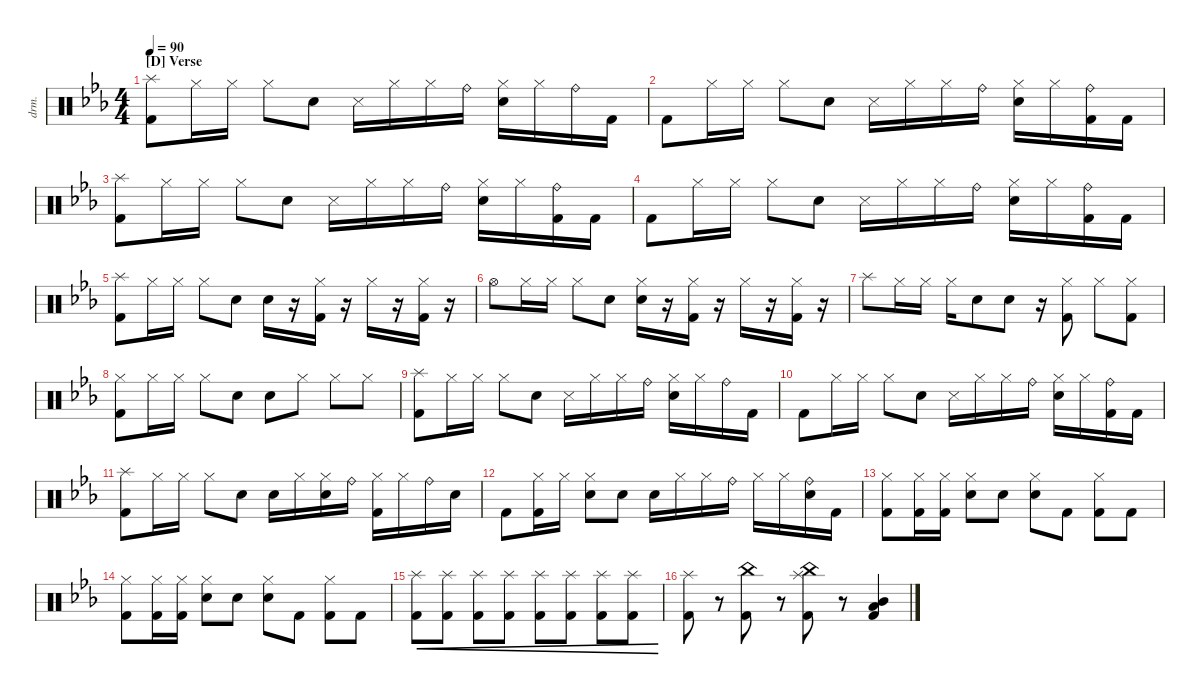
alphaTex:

\defaultSystemsLayout 4
\hideDynamics
\bracketExtendMode nobrackets
\otherSystemsTrackNameOrientation horizontal
\track ("Drumkit" "drm.") {instrument percussion}
\staff {score}
\articulation defaults
\ts (4 4)
\section ("D" "Verse")
\tempo 90
\clef neutral
\ks cminor
("Kick (hit) 2"{acc forcenatural} "Splash (hit)"{acc forcenatural}).8{dy mf beam Down} "Hi-Hat (closed)"{acc forcenatural}.16{beam Down} "Hi-Hat (closed)"{acc forcenatural}.16{beam Down} "Hi-Hat (closed)"{acc forcenatural}.8{beam Down} "Snare (hit) 2"{acc forcenatural}.8{beam Down} "Snare (side stick) 3"{acc forcenatural}.16{beam Down} "Hi-Hat (closed)"{acc forcenatural}.16{beam Down} "Hi-Hat (closed)"{acc forcenatural}.16{beam Down} "Ride (bell)"{acc forcenatural}.16{beam Down} ("Hi-Hat (closed)"{acc forcenatural} "Snare (hit) 2"{acc forcenatural}).16{beam Down} "Hi-Hat (closed)"{acc forcenatural}.16{beam Down} "Ride (bell)"{acc forcenatural}.16{beam Down} "Kick (hit) 2"{acc forcenatural}.16{beam Down} |
"Kick (hit) 2"{acc forcenatural}.8{beam Down} "Hi-Hat (closed)"{acc forcenatural}.16{beam Down} "Hi-Hat (closed)"{acc forcenatural}.16{beam Down} "Hi-Hat (closed)"{acc forcenatural}.8{beam Down} "Snare (hit) 2"{acc forcenatural}.8{beam Down} "Snare (side stick) 3"{acc forcenatural}.16{beam Down} "Hi-Hat (closed)"{acc forcenatural}.16{beam Down} "Hi-Hat (closed)"{acc forcenatural}.16{beam Down} "Ride (bell)"{acc forcenatural}.16{beam Down} ("Hi-Hat (closed)"{acc forcenatural} "Snare (hit) 2"{acc forcenatural}).16{beam Down} "Hi-Hat (closed)"{acc forcenatural}.16{beam Down} ("Ride (bell)"{acc forcenatural} "Kick (hit) 2"{acc forcenatural}).16{beam Down} "Kick (hit) 2"{acc forcenatural}.16{beam Down} |
("Kick (hit) 2"{acc forcenatural} "Splash (hit)"{acc forcenatural}).8{beam Down} "Hi-Hat (closed)"{acc forcenatural}.16{beam Down} "Hi-Hat (closed)"{acc forcenatural}.16{beam Down} "Hi-Hat (closed)"{acc forcenatural}.8{beam Down} "Snare (hit) 2"{acc forcenatural}.8{beam Down} "Snare (side stick) 3"{acc forcenatural}.16{beam Down} "Hi-Hat (closed)"{acc forcenatural}.16{beam Down} "Hi-Hat (closed)"{acc forcenatural}.16{beam Down} "Ride (bell)"{acc forcenatural}.16{beam Down} ("Hi-Hat (closed)"{acc forcenatural} "Snare (hit) 2"{acc forcenatural}).16{beam Down} "Hi-Hat (closed)"{acc forcenatural}.16{beam Down} ("Ride (bell)"{acc forcenatural} "Kick (hit) 2"{acc forcenatural}).16{beam Down} "Kick (hit) 2"{acc forcenatural}.16{beam Down} |
"Kick (hit) 2"{acc forcenatural}.8{beam Down} "Hi-Hat (closed)"{acc forcenatural}.16{beam Down} "Hi-Hat (closed)"{acc forcenatural}.16{beam Down} "Hi-Hat (closed)"{acc forcenatural}.8{beam Down} "Snare (hit) 2"{acc forcenatural}.8{beam Down} "Snare (side stick) 3"{acc forcenatural}.16{beam Down} "Hi-Hat (closed)"{acc forcenatural}.16{beam Down} "Hi-Hat (closed)"{acc forcenatural}.16{beam Down} "Ride (bell)"{acc forcenatural}.16{beam Down} ("Hi-Hat (closed)"{acc forcenatural} "Snare (hit) 2"{acc forcenatural}).16{beam Down} "Hi-Hat (closed)"{acc forcenatural}.16{beam Down} ("Ride (bell)"{acc forcenatural} "Kick (hit) 2"{acc forcenatural}).16{beam Down} "Kick (hit) 2"{acc forcenatural}.16{beam Down} |
("Kick (hit) 2"{acc forcenatural} "Splash (hit)"{acc forcenatural}).8{beam Down} "Hi-Hat (closed)"{acc forcenatural}.16{beam Down} "Hi-Hat (closed)"{acc forcenatural}.16{beam Down} "Hi-Hat (closed)"{acc forcenatural}.8{beam Down} "Snare (hit) 2"{acc forcenatural}.8{beam Down} "Snare (hit) 2"{acc forcenatural}.16{beam Down} r.16{beam Down} ("Hi-Hat (closed)"{acc forcenatural} "Kick (hit) 2"{acc forcenatural}).16{beam Down} r.16{beam Down} "Hi-Hat (closed)"{acc forcenatural}.16{beam Down} r.16{beam Down} ("Kick (hit) 2"{acc forcenatural} "Hi-Hat (closed)"{acc forcenatural}).16{beam Down} r.16{beam Down} |
"Hi-Hat (open)"{acc forcenatural}.8{beam Down} "Hi-Hat (closed)"{acc forcenatural}.16{beam Down} "Hi-Hat (closed)"{acc forcenatural}.16{beam Down} "Hi-Hat (closed)"{acc forcenatural}.8{beam Down} "Snare (hit) 2"{acc forcenatural}.8{beam Down} ("Snare (hit) 2"{acc forcenatural} "Hi-Hat (closed)"{acc forcenatural}).16{beam Down} r.16{beam Down} ("Kick (hit) 2"{acc forcenatural} "Hi-Hat (closed)"{acc forcenatural}).16{beam Down} r.16{beam Down} "Hi-Hat (closed)"{acc forcenatural}.16{beam Down} r.16{beam Down} ("Kick (hit) 2"{acc forcenatural} "Hi-Hat (closed)"{acc forcenatural}).16{beam Down} r.16{beam Down} |
"Splash (hit)"{acc forcenatural}.8{beam Down} "Hi-Hat (closed)"{acc forcenatural}.16{beam Down} "Hi-Hat (closed)"{acc forcenatural}.16{beam Down} "Hi-Hat (closed)"{acc forcenatural}.16{beam Down} "Snare (hit) 2"{acc forcenatural}.8{beam Down} "Snare (hit) 2"{acc forcenatural}.8{beam Down} r.16{beam Down} ("Hi-Hat (closed)"{acc forcenatural} "Kick (hit) 2"{acc forcenatural}).8{beam Down} "Hi-Hat (closed)"{acc forcenatural}.8{beam Down} ("Kick (hit) 2"{acc forcenatural} "Hi-Hat (closed)"{acc forcenatural}).8{beam Down} |
("Kick (hit) 2"{acc forcenatural} "Hi-Hat (closed)"{acc forcenatural}).8{beam Down} "Hi-Hat (closed)"{acc forcenatural}.16{beam Down} "Hi-Hat (closed)"{acc forcenatural}.16{beam Down} "Hi-Hat (closed)"{acc forcenatural}.8{beam Down} "Snare (hit) 2"{acc forcenatural}.8{beam Down} "Snare (hit) 2"{acc forcenatural}.8{beam Down} "Hi-Hat (closed)"{acc forcenatural}.8{beam Down} "Hi-Hat (closed)"{acc forcenatural}.8{beam Down} "Hi-Hat (closed)"{acc forcenatural}.8{beam Down} |
("Kick (hit) 2"{acc forcenatural} "Splash (hit)"{acc forcenatural}).8{beam Down} "Hi-Hat (closed)"{acc forcenatural}.16{beam Down} "Hi-Hat (closed)"{acc forcenatural}.16{beam Down} "Hi-Hat (closed)"{acc forcenatural}.8{beam Down} "Snare (hit) 2"{acc forcenatural}.8{beam Down} "Snare (side stick) 3"{acc forcenatural}.16{beam Down} "Hi-Hat (closed)"{acc forcenatural}.16{beam Down} "Hi-Hat (closed)"{acc forcenatural}.16{beam Down} "Ride (bell)"{acc forcenatural}.16{beam Down} ("Hi-Hat (closed)"{acc forcenatural} "Snare (hit) 2"{acc forcenatural}).16{beam Down} "Hi-Hat (closed)"{acc forcenatural}.16{beam Down} "Ride (bell)"{acc forcenatural}.16{beam Down} "Kick (hit) 2"{acc forcenatural}.16{beam Down} |
"Kick (hit) 2"{acc forcenatural}.8{beam Down} "Hi-Hat (closed)"{acc forcenatural}.16{beam Down} "Hi-Hat (closed)"{acc forcenatural}.16{beam Down} "Hi-Hat (closed)"{acc forcenatural}.8{beam Down} "Snare (hit) 2"{acc forcenatural}.8{beam Down} "Snare (side stick) 3"{acc forcenatural}.16{beam Down} "Hi-Hat (closed)"{acc forcenatural}.16{beam Down} "Hi-Hat (closed)"{acc forcenatural}.16{beam Down} "Ride (bell)"{acc forcenatural}.16{beam Down} ("Hi-Hat (closed)"{acc forcenatural} "Snare (hit) 2"{acc forcenatural}).16{beam Down} "Hi-Hat (closed)"{acc forcenatural}.16{beam Down} ("Ride (bell)"{acc forcenatural} "Kick (hit) 2"{acc forcenatural}).16{beam Down} "Kick (hit) 2"{acc forcenatural}.16{beam Down} |
("Kick (hit) 2"{acc forcenatural} "Splash (hit)"{acc forcenatural}).8{beam Down} "Hi-Hat (closed)"{acc forcenatural}.16{beam Down} "Hi-Hat (closed)"{acc forcenatural}.16{beam Down} "Hi-Hat (closed)"{acc forcenatural}.8{beam Down} "Snare (hit) 2"{acc forcenatural}.8{beam Down} "Snare (hit) 2"{acc forcenatural}.16{beam Down} "Hi-Hat (closed)"{acc forcenatural}.16{beam Down} ("Hi-Hat (closed)"{acc forcenatural} "Snare (hit) 2"{acc forcenatural}).16{beam Down} "Ride (bell)"{acc forcenatural}.16{beam Down} ("Hi-Hat (closed)"{acc forcenatural} "Kick (hit) 2"{acc forcenatural}).16{beam Down} "Hi-Hat (closed)"{acc forcenatural}.16{beam Down} "Ride (bell)"{acc forcenatural}.16{beam Down} "Snare (hit) 2"{acc forcenatural}.16{beam Down} |
"Kick (hit) 2"{acc forcenatural}.8{beam Down} ("Hi-Hat (closed)"{acc forcenatural} "Kick (hit) 2"{acc forcenatural}).16{beam Down} "Hi-Hat (closed)"{acc forcenatural}.16{beam Down} ("Hi-Hat (closed)"{acc forcenatural} "Snare (hit) 2"{acc forcenatural}).8{beam Down} "Snare (hit) 2"{acc forcenatural}.8{beam Down} "Snare (hit) 2"{acc forcenatural}.16{beam Down} "Hi-Hat (closed)"{acc forcenatural}.16{beam Down} "Hi-Hat (closed)"{acc forcenatural}.16{beam Down} "Ride (bell)"{acc forcenatural}.16{beam Down} "Hi-Hat (closed)"{acc forcenatural}.16{beam Down} "Hi-Hat (closed)"{acc forcenatural}.16{beam Down} ("Ride (bell)"{acc forcenatural} "Snare (hit) 2"{acc forcenatural}).16{beam Down} "Kick (hit) 2"{acc forcenatural}.16{beam Down} |
("Kick (hit) 2"{acc forcenatural} "Hi-Hat (closed)"{acc forcenatural}).8{beam Down} ("Hi-Hat (closed)"{acc forcenatural} "Kick (hit) 2"{acc forcenatural}).16{beam Down} ("Hi-Hat (closed)"{acc forcenatural} "Kick (hit) 2"{acc forcenatural}).16{beam Down} ("Hi-Hat (closed)"{acc forcenatural} "Snare (hit) 2"{acc forcenatural}).8{beam Down} "Snare (hit) 2"{acc forcenatural}.8{beam Down} ("Snare (hit) 2"{acc forcenatural} "Hi-Hat (closed)"{acc forcenatural}).8{beam Down} "Kick (hit) 2"{acc forcenatural}.8{beam Down} ("Hi-Hat (closed)"{acc forcenatural} "Kick (hit) 2"{acc forcenatural}).8{beam Down} "Kick (hit) 2"{acc forcenatural}.8{beam Down} |
("Kick (hit) 2"{acc forcenatural} "Hi-Hat (closed)"{acc forcenatural}).8{beam Down} ("Hi-Hat (closed)"{acc forcenatural} "Kick (hit) 2"{acc forcenatural}).16{beam Down} ("Hi-Hat (closed)"{acc forcenatural} "Kick (hit) 2"{acc forcenatural}).16{beam Down} ("Hi-Hat (closed)"{acc forcenatural} "Snare (hit) 2"{acc forcenatural}).8{beam Down} "Snare (hit) 2"{acc forcenatural}.8{beam Down} ("Snare (hit) 2"{acc forcenatural} "Hi-Hat (closed)"{acc forcenatural}).8{beam Down} "Kick (hit) 2"{acc forcenatural}.8{beam Down} ("Hi-Hat (closed)"{acc forcenatural} "Kick (hit) 2"{acc forcenatural}).8{beam Down} "Kick (hit) 2"{acc forcenatural}.8{beam Down} |
("Kick (hit) 2"{acc forcenatural} "Splash (hit)"{acc forcenatural}).8{cre dy p beam Down} ("Kick (hit) 2"{acc forcenatural} "Splash (hit)"{acc forcenatural}).8{cre beam Down} ("Kick (hit) 2"{acc forcenatural} "Splash (hit)"{acc forcenatural}).8{cre beam Down} ("Kick (hit) 2"{acc forcenatural} "Splash (hit)"{acc forcenatural}).8{cre beam Down} ("Kick (hit) 2"{acc forcenatural} "Splash (hit)"{acc forcenatural}).8{cre dy mp beam Down} ("Kick (hit) 2"{acc forcenatural} "Splash (hit)"{acc forcenatural}).8{cre beam Down} ("Kick (hit) 2"{acc forcenatural} "Splash (hit)"{acc forcenatural}).8{cre dy mf beam Down} ("Kick (hit) 2"{acc forcenatural} "Splash (hit)"{acc forcenatural}).8{cre beam Down} |
("Splash (hit)"{acc forcenatural} "Kick (hit) 2"{acc forcenatural}).8{beam Down} r.8{beam Down} ("Kick (hit) 2"{acc forcenatural} "China (hit)"{acc forcenatural}).8{beam Down} r.8{beam Down} ("China (hit)"{acc forcenatural} "Splash (hit)"{acc forcenatural} "Kick (hit) 2"{acc forcenatural}).8{beam Down} r.8{beam Down} ("Low Tom (hit)"{acc forcenatural} "Mid Tom (hit)"{acc forcenatural} "Kick (hit) 2"{acc forcenatural}).4{dy ff beam Up}
